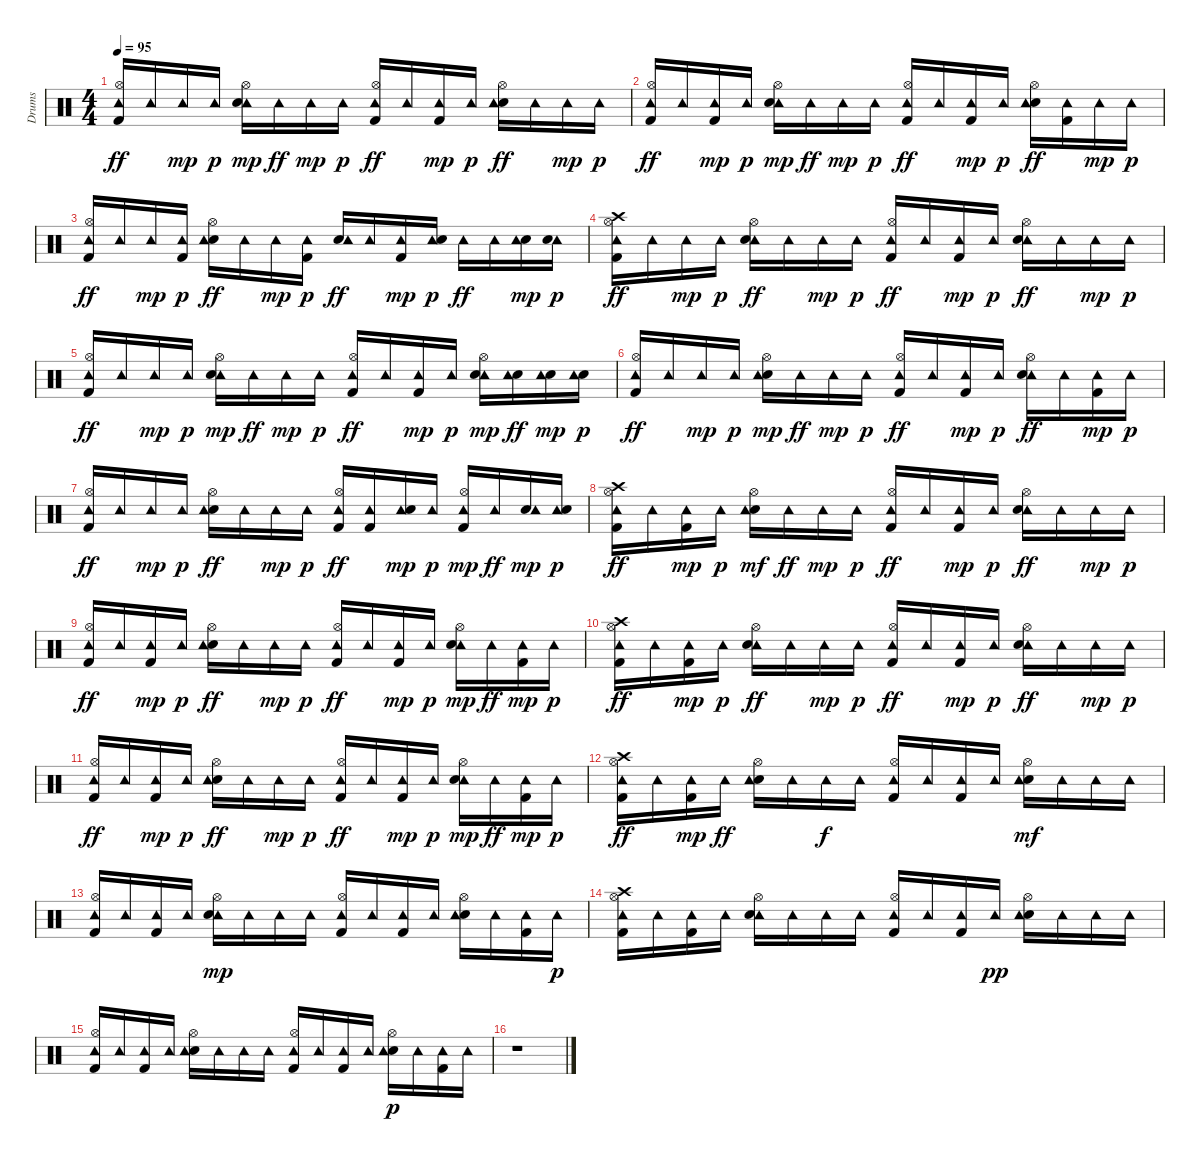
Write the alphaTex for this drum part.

\track ("Drums" "Drums") {instrument percussion}
\staff {score}
\articulation defaults
\ts (4 4)
\tempo 95
\clef neutral
\ks c
("Kick (hit) 2" "Hi-Hat (open)" "Tambourine (hit)").16{dy ff} "Tambourine (hit)".16 "Tambourine (hit)".16{dy mp} "Tambourine (hit)".16{dy p} ("Tambourine (hit)" "Hi-Hat (open)" "Snare (hit) 2").16{dy mp} "Tambourine (hit)".16{dy ff} "Tambourine (hit)".16{dy mp} "Tambourine (hit)".16{dy p} ("Hi-Hat (open)" "Kick (hit) 2" "Tambourine (hit)").16{dy ff} "Tambourine (hit)".16 ("Tambourine (hit)" "Kick (hit) 2").16{dy mp} "Tambourine (hit)".16{dy p} ("Snare (hit) 2" "Hi-Hat (open)" "Tambourine (hit)").16{dy ff} "Tambourine (hit)".16 "Tambourine (hit)".16{dy mp} "Tambourine (hit)".16{dy p} |
("Tambourine (hit)" "Hi-Hat (open)" "Kick (hit) 2").16{dy ff} "Tambourine (hit)".16 ("Tambourine (hit)" "Kick (hit) 2").16{dy mp} "Tambourine (hit)".16{dy p} ("Tambourine (hit)" "Hi-Hat (open)" "Snare (hit) 2").16{dy mp} "Tambourine (hit)".16{dy ff} "Tambourine (hit)".16{dy mp} "Tambourine (hit)".16{dy p} ("Tambourine (hit)" "Kick (hit) 2" "Hi-Hat (open)").16{dy ff} "Tambourine (hit)".16 ("Tambourine (hit)" "Kick (hit) 2").16{dy mp} "Tambourine (hit)".16{dy p} ("Snare (hit) 2" "Hi-Hat (open)" "Tambourine (hit)").16{dy ff} ("Kick (hit) 2" "Tambourine (hit)").16 "Tambourine (hit)".16{dy mp} "Tambourine (hit)".16{dy p} |
("Tambourine (hit)" "Kick (hit) 2" "Hi-Hat (open)").16{dy ff} "Tambourine (hit)".16 "Tambourine (hit)".16{dy mp} ("Kick (hit) 2" "Tambourine (hit)").16{dy p} ("Hi-Hat (open)" "Snare (hit) 2" "Tambourine (hit)").16{dy ff} "Tambourine (hit)".16 "Tambourine (hit)".16{dy mp} ("Kick (hit) 2" "Tambourine (hit)").16{dy p} ("Snare (hit) 2" "Tambourine (hit)").16{dy ff} "Tambourine (hit)".16 ("Kick (hit) 2" "Tambourine (hit)").16{dy mp} ("Tambourine (hit)" "Snare (hit) 2").16{dy p} "Tambourine (hit)".16{dy ff} "Tambourine (hit)".16 ("Snare (hit) 2" "Tambourine (hit)").16{dy mp} ("Tambourine (hit)" "Snare (hit) 2").16{dy p} |
("Kick (hit) 2" "Tambourine (hit)" "Crash high (hit)" "Hi-Hat (open)").16{dy ff} "Tambourine (hit)".16 "Tambourine (hit)".16{dy mp} "Tambourine (hit)".16{dy p} ("Hi-Hat (open)" "Tambourine (hit)" "Snare (hit) 2").16{dy ff} "Tambourine (hit)".16 "Tambourine (hit)".16{dy mp} "Tambourine (hit)".16{dy p} ("Hi-Hat (open)" "Tambourine (hit)" "Kick (hit) 2").16{dy ff} "Tambourine (hit)".16 ("Tambourine (hit)" "Kick (hit) 2").16{dy mp} "Tambourine (hit)".16{dy p} ("Hi-Hat (open)" "Tambourine (hit)" "Snare (hit) 2").16{dy ff} "Tambourine (hit)".16 "Tambourine (hit)".16{dy mp} "Tambourine (hit)".16{dy p} |
("Hi-Hat (open)" "Tambourine (hit)" "Kick (hit) 2").16{dy ff} "Tambourine (hit)".16 "Tambourine (hit)".16{dy mp} "Tambourine (hit)".16{dy p} ("Tambourine (hit)" "Hi-Hat (open)" "Snare (hit) 2").16{dy mp} "Tambourine (hit)".16{dy ff} "Tambourine (hit)".16{dy mp} "Tambourine (hit)".16{dy p} ("Tambourine (hit)" "Hi-Hat (open)" "Kick (hit) 2").16{dy ff} "Tambourine (hit)".16 ("Kick (hit) 2" "Tambourine (hit)").16{dy mp} "Tambourine (hit)".16{dy p} ("Tambourine (hit)" "Hi-Hat (open)" "Snare (hit) 2").16{dy mp} ("Snare (hit) 2" "Tambourine (hit)").16{dy ff} ("Snare (hit) 2" "Tambourine (hit)").16{dy mp} ("Snare (hit) 2" "Tambourine (hit)").16{dy p} |
("Kick (hit) 2" "Hi-Hat (open)" "Tambourine (hit)").16{dy ff} "Tambourine (hit)".16 "Tambourine (hit)".16{dy mp} "Tambourine (hit)".16{dy p} ("Snare (hit) 2" "Tambourine (hit)" "Hi-Hat (open)").16{dy mp} "Tambourine (hit)".16{dy ff} "Tambourine (hit)".16{dy mp} "Tambourine (hit)".16{dy p} ("Kick (hit) 2" "Tambourine (hit)" "Hi-Hat (open)").16{dy ff} "Tambourine (hit)".16 ("Tambourine (hit)" "Kick (hit) 2").16{dy mp} "Tambourine (hit)".16{dy p} ("Hi-Hat (open)" "Tambourine (hit)" "Snare (hit) 2").16{dy ff} "Tambourine (hit)".16 ("Tambourine (hit)" "Kick (hit) 2").16{dy mp} "Tambourine (hit)".16{dy p} |
("Kick (hit) 2" "Tambourine (hit)" "Hi-Hat (open)").16{dy ff} "Tambourine (hit)".16 "Tambourine (hit)".16{dy mp} "Tambourine (hit)".16{dy p} ("Snare (hit) 2" "Hi-Hat (open)" "Tambourine (hit)").16{dy ff} "Tambourine (hit)".16 "Tambourine (hit)".16{dy mp} "Tambourine (hit)".16{dy p} ("Kick (hit) 2" "Hi-Hat (open)" "Tambourine (hit)").16{dy ff} ("Tambourine (hit)" "Kick (hit) 2").16 ("Tambourine (hit)" "Snare (hit) 2").16{dy mp} "Tambourine (hit)".16{dy p} ("Tambourine (hit)" "Hi-Hat (open)" "Kick (hit) 2").16{dy mp} "Tambourine (hit)".16{dy ff} ("Snare (hit) 2" "Tambourine (hit)").16{dy mp} ("Tambourine (hit)" "Snare (hit) 2").16{dy p} |
("Tambourine (hit)" "Crash high (hit)" "Hi-Hat (open)" "Kick (hit) 2").16{dy ff} "Tambourine (hit)".16 ("Tambourine (hit)" "Kick (hit) 2").16{dy mp} "Tambourine (hit)".16{dy p} ("Snare (hit) 2" "Tambourine (hit)" "Hi-Hat (open)").16{dy mf} "Tambourine (hit)".16{dy ff} "Tambourine (hit)".16{dy mp} "Tambourine (hit)".16{dy p} ("Kick (hit) 2" "Tambourine (hit)" "Hi-Hat (open)").16{dy ff} "Tambourine (hit)".16 ("Tambourine (hit)" "Kick (hit) 2").16{dy mp} "Tambourine (hit)".16{dy p} ("Hi-Hat (open)" "Tambourine (hit)" "Snare (hit) 2").16{dy ff} "Tambourine (hit)".16 "Tambourine (hit)".16{dy mp} "Tambourine (hit)".16{dy p} |
("Kick (hit) 2" "Tambourine (hit)" "Hi-Hat (open)").16{dy ff} "Tambourine (hit)".16 ("Kick (hit) 2" "Tambourine (hit)").16{dy mp} "Tambourine (hit)".16{dy p} ("Snare (hit) 2" "Hi-Hat (open)" "Tambourine (hit)").16{dy ff} "Tambourine (hit)".16 "Tambourine (hit)".16{dy mp} "Tambourine (hit)".16{dy p} ("Kick (hit) 2" "Hi-Hat (open)" "Tambourine (hit)").16{dy ff} "Tambourine (hit)".16 ("Kick (hit) 2" "Tambourine (hit)").16{dy mp} "Tambourine (hit)".16{dy p} ("Tambourine (hit)" "Hi-Hat (open)" "Snare (hit) 2").16{dy mp} "Tambourine (hit)".16{dy ff} ("Tambourine (hit)" "Kick (hit) 2").16{dy mp} "Tambourine (hit)".16{dy p} |
("Kick (hit) 2" "Hi-Hat (open)" "Crash high (hit)" "Tambourine (hit)").16{dy ff} "Tambourine (hit)".16 ("Tambourine (hit)" "Kick (hit) 2").16{dy mp} "Tambourine (hit)".16{dy p} ("Hi-Hat (open)" "Tambourine (hit)" "Snare (hit) 2").16{dy ff} "Tambourine (hit)".16 "Tambourine (hit)".16{dy mp} "Tambourine (hit)".16{dy p} ("Hi-Hat (open)" "Tambourine (hit)" "Kick (hit) 2").16{dy ff} "Tambourine (hit)".16 ("Kick (hit) 2" "Tambourine (hit)").16{dy mp} "Tambourine (hit)".16{dy p} ("Hi-Hat (open)" "Tambourine (hit)" "Snare (hit) 2").16{dy ff} "Tambourine (hit)".16 "Tambourine (hit)".16{dy mp} "Tambourine (hit)".16{dy p} |
("Kick (hit) 2" "Tambourine (hit)" "Hi-Hat (open)").16{dy ff} "Tambourine (hit)".16 ("Kick (hit) 2" "Tambourine (hit)").16{dy mp} "Tambourine (hit)".16{dy p} ("Snare (hit) 2" "Hi-Hat (open)" "Tambourine (hit)").16{dy ff} "Tambourine (hit)".16 "Tambourine (hit)".16{dy mp} "Tambourine (hit)".16{dy p} ("Tambourine (hit)" "Hi-Hat (open)" "Kick (hit) 2").16{dy ff} "Tambourine (hit)".16 ("Kick (hit) 2" "Tambourine (hit)").16{dy mp} "Tambourine (hit)".16{dy p} ("Tambourine (hit)" "Hi-Hat (open)" "Snare (hit) 2").16{dy mp} "Tambourine (hit)".16{dy ff} ("Kick (hit) 2" "Tambourine (hit)").16{dy mp} "Tambourine (hit)".16{dy p} |
("Kick (hit) 2" "Hi-Hat (open)" "Crash high (hit)" "Tambourine (hit)").16{dy ff} "Tambourine (hit)".16 ("Kick (hit) 2" "Tambourine (hit)").16{dy mp} "Tambourine (hit)".16{dy ff} ("Snare (hit) 2" "Tambourine (hit)" "Hi-Hat (open)").16 "Tambourine (hit)".16 "Tambourine (hit)".16{dy f} "Tambourine (hit)".16 ("Kick (hit) 2" "Tambourine (hit)" "Hi-Hat (open)").16 "Tambourine (hit)".16 ("Kick (hit) 2" "Tambourine (hit)").16 "Tambourine (hit)".16 ("Snare (hit) 2" "Tambourine (hit)" "Hi-Hat (open)").16{dy mf} "Tambourine (hit)".16 "Tambourine (hit)".16 "Tambourine (hit)".16 |
("Hi-Hat (open)" "Tambourine (hit)" "Kick (hit) 2").16 "Tambourine (hit)".16 ("Tambourine (hit)" "Kick (hit) 2").16 "Tambourine (hit)".16 ("Tambourine (hit)" "Hi-Hat (open)" "Snare (hit) 2").16{dy mp} "Tambourine (hit)".16 "Tambourine (hit)".16 "Tambourine (hit)".16 ("Kick (hit) 2" "Hi-Hat (open)" "Tambourine (hit)").16 "Tambourine (hit)".16 ("Tambourine (hit)" "Kick (hit) 2").16 "Tambourine (hit)".16 ("Snare (hit) 2" "Hi-Hat (open)" "Tambourine (hit)").16 "Tambourine (hit)".16 ("Tambourine (hit)" "Kick (hit) 2").16 "Tambourine (hit)".16{dy p} |
("Tambourine (hit)" "Crash high (hit)" "Hi-Hat (open)" "Kick (hit) 2").16 "Tambourine (hit)".16 ("Kick (hit) 2" "Tambourine (hit)").16 "Tambourine (hit)".16 ("Hi-Hat (open)" "Tambourine (hit)" "Snare (hit) 2").16 "Tambourine (hit)".16 "Tambourine (hit)".16 "Tambourine (hit)".16 ("Hi-Hat (open)" "Tambourine (hit)" "Kick (hit) 2").16 "Tambourine (hit)".16 ("Kick (hit) 2" "Tambourine (hit)").16 "Tambourine (hit)".16{dy pp} ("Snare (hit) 2" "Tambourine (hit)" "Hi-Hat (open)").16 "Tambourine (hit)".16 "Tambourine (hit)".16 "Tambourine (hit)".16 |
("Kick (hit) 2" "Tambourine (hit)" "Hi-Hat (open)").16 "Tambourine (hit)".16 ("Tambourine (hit)" "Kick (hit) 2").16 "Tambourine (hit)".16 ("Snare (hit) 2" "Hi-Hat (open)" "Tambourine (hit)").16 "Tambourine (hit)".16 "Tambourine (hit)".16 "Tambourine (hit)".16 ("Tambourine (hit)" "Hi-Hat (open)" "Kick (hit) 2").16 "Tambourine (hit)".16 ("Kick (hit) 2" "Tambourine (hit)").16 "Tambourine (hit)".16 ("Snare (hit) 2" "Hi-Hat (open)" "Tambourine (hit)").16{dy p} "Tambourine (hit)".16 ("Kick (hit) 2" "Tambourine (hit)").16 "Tambourine (hit)".16 |
r.1
